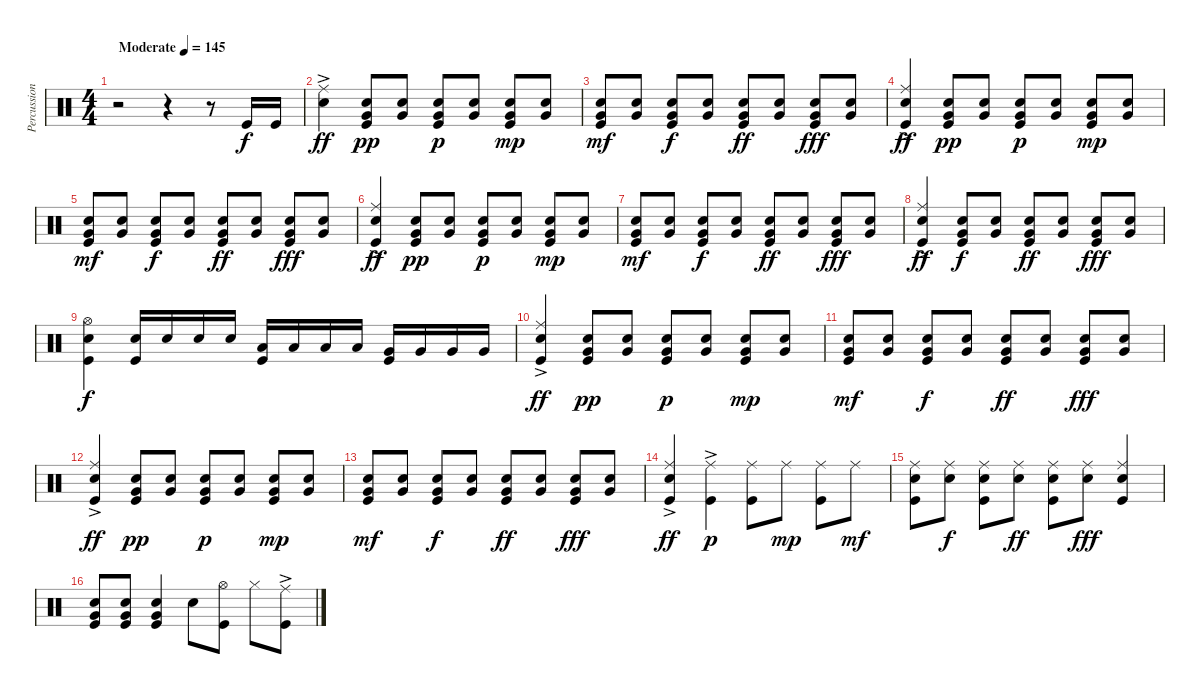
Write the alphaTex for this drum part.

\track ("Percussion" "Percussion") {instrument percussion}
\staff {score}
\articulation defaults
\ts (4 4)
\tempo (145 "Moderate")
\clef neutral
\ks c
r.2{dy f} r.4 r.8 "Kick (hit)".16 "Kick (hit)".16 |
("Ride (middle)"{ac} "Snare (hit) 2").4{dy ff} ("Snare (hit) 2" "Very Low Tom (hit)" "Kick (hit)").8{dy pp} ("Snare (hit) 2" "Very Low Tom (hit)").8 ("Snare (hit) 2" "Very Low Tom (hit)" "Kick (hit)").8{dy p} ("Snare (hit) 2" "Very Low Tom (hit)").8 ("Snare (hit) 2" "Very Low Tom (hit)" "Kick (hit)").8{dy mp} ("Snare (hit) 2" "Very Low Tom (hit)").8 |
("Snare (hit) 2" "Very Low Tom (hit)" "Kick (hit)").8{dy mf} ("Snare (hit) 2" "Very Low Tom (hit)").8 ("Snare (hit) 2" "Very Low Tom (hit)" "Kick (hit)").8{dy f} ("Snare (hit) 2" "Very Low Tom (hit)").8 ("Snare (hit) 2" "Very Low Tom (hit)" "Kick (hit)").8{dy ff} ("Snare (hit) 2" "Very Low Tom (hit)").8 ("Snare (hit) 2" "Very Low Tom (hit)" "Kick (hit)").8{dy fff} ("Snare (hit) 2" "Very Low Tom (hit)").8 |
("Ride (middle)"{ac} "Snare (hit) 2" "Kick (hit)").4{dy ff} ("Snare (hit) 2" "Very Low Tom (hit)" "Kick (hit)").8{dy pp} ("Snare (hit) 2" "Very Low Tom (hit)").8 ("Snare (hit) 2" "Very Low Tom (hit)" "Kick (hit)").8{dy p} ("Snare (hit) 2" "Very Low Tom (hit)").8 ("Snare (hit) 2" "Very Low Tom (hit)" "Kick (hit)").8{dy mp} ("Snare (hit) 2" "Very Low Tom (hit)").8 |
("Snare (hit) 2" "Very Low Tom (hit)" "Kick (hit)").8{dy mf} ("Snare (hit) 2" "Very Low Tom (hit)").8 ("Snare (hit) 2" "Very Low Tom (hit)" "Kick (hit)").8{dy f} ("Snare (hit) 2" "Very Low Tom (hit)").8 ("Snare (hit) 2" "Very Low Tom (hit)" "Kick (hit)").8{dy ff} ("Snare (hit) 2" "Very Low Tom (hit)").8 ("Snare (hit) 2" "Very Low Tom (hit)" "Kick (hit)").8{dy fff} ("Snare (hit) 2" "Very Low Tom (hit)").8 |
("Ride (middle)"{ac} "Snare (hit) 2" "Kick (hit)").4{dy ff} ("Snare (hit) 2" "Very Low Tom (hit)" "Kick (hit)").8{dy pp} ("Snare (hit) 2" "Very Low Tom (hit)").8 ("Snare (hit) 2" "Very Low Tom (hit)" "Kick (hit)").8{dy p} ("Snare (hit) 2" "Very Low Tom (hit)").8 ("Snare (hit) 2" "Very Low Tom (hit)" "Kick (hit)").8{dy mp} ("Snare (hit) 2" "Very Low Tom (hit)").8 |
("Snare (hit) 2" "Very Low Tom (hit)" "Kick (hit)").8{dy mf} ("Snare (hit) 2" "Very Low Tom (hit)").8 ("Snare (hit) 2" "Very Low Tom (hit)" "Kick (hit)").8{dy f} ("Snare (hit) 2" "Very Low Tom (hit)").8 ("Snare (hit) 2" "Very Low Tom (hit)" "Kick (hit)").8{dy ff} ("Snare (hit) 2" "Very Low Tom (hit)").8 ("Snare (hit) 2" "Very Low Tom (hit)" "Kick (hit)").8{dy fff} ("Snare (hit) 2" "Very Low Tom (hit)").8 |
("Ride (middle)"{ac} "Snare (hit) 2" "Kick (hit)").4{dy ff} ("Snare (hit) 2" "Very Low Tom (hit)" "Kick (hit)").8{dy f} ("Snare (hit) 2" "Very Low Tom (hit)").8 ("Snare (hit) 2" "Very Low Tom (hit)" "Kick (hit)").8{dy ff} ("Snare (hit) 2" "Very Low Tom (hit)").8 ("Snare (hit) 2" "Very Low Tom (hit)" "Kick (hit)").8{dy fff} ("Snare (hit) 2" "Very Low Tom (hit)").8 |
("Hi-Hat (open)" "Snare (hit) 2" "Kick (hit)").4{dy f} ("Snare (hit) 2" "Kick (hit)").16 "Snare (hit) 2".16 "Snare (hit) 2".16 "Snare (hit) 2".16 ("Low Tom (hit)" "Kick (hit)").16 "Low Tom (hit)".16 "Low Tom (hit)".16 "Low Tom (hit)".16 ("Very Low Tom (hit)" "Kick (hit)").16 "Very Low Tom (hit)".16 "Very Low Tom (hit)".16 "Very Low Tom (hit)".16 |
("Ride (middle)"{ac} "Snare (hit) 2" "Kick (hit)").4{dy ff} ("Snare (hit) 2" "Very Low Tom (hit)" "Kick (hit)").8{dy pp} ("Snare (hit) 2" "Very Low Tom (hit)").8 ("Snare (hit) 2" "Very Low Tom (hit)" "Kick (hit)").8{dy p} ("Snare (hit) 2" "Very Low Tom (hit)").8 ("Snare (hit) 2" "Very Low Tom (hit)" "Kick (hit)").8{dy mp} ("Snare (hit) 2" "Very Low Tom (hit)").8 |
("Snare (hit) 2" "Very Low Tom (hit)" "Kick (hit)").8{dy mf} ("Snare (hit) 2" "Very Low Tom (hit)").8 ("Snare (hit) 2" "Very Low Tom (hit)" "Kick (hit)").8{dy f} ("Snare (hit) 2" "Very Low Tom (hit)").8 ("Snare (hit) 2" "Very Low Tom (hit)" "Kick (hit)").8{dy ff} ("Snare (hit) 2" "Very Low Tom (hit)").8 ("Snare (hit) 2" "Very Low Tom (hit)" "Kick (hit)").8{dy fff} ("Snare (hit) 2" "Very Low Tom (hit)").8 |
("Ride (middle)"{ac} "Snare (hit) 2" "Kick (hit)").4{dy ff} ("Snare (hit) 2" "Very Low Tom (hit)" "Kick (hit)").8{dy pp} ("Snare (hit) 2" "Very Low Tom (hit)").8 ("Snare (hit) 2" "Very Low Tom (hit)" "Kick (hit)").8{dy p} ("Snare (hit) 2" "Very Low Tom (hit)").8 ("Snare (hit) 2" "Very Low Tom (hit)" "Kick (hit)").8{dy mp} ("Snare (hit) 2" "Very Low Tom (hit)").8 |
("Snare (hit) 2" "Very Low Tom (hit)" "Kick (hit)").8{dy mf} ("Snare (hit) 2" "Very Low Tom (hit)").8 ("Snare (hit) 2" "Very Low Tom (hit)" "Kick (hit)").8{dy f} ("Snare (hit) 2" "Very Low Tom (hit)").8 ("Snare (hit) 2" "Very Low Tom (hit)" "Kick (hit)").8{dy ff} ("Snare (hit) 2" "Very Low Tom (hit)").8 ("Snare (hit) 2" "Very Low Tom (hit)" "Kick (hit)").8{dy fff} ("Snare (hit) 2" "Very Low Tom (hit)").8 |
("Ride (middle)"{ac} "Snare (hit) 2" "Kick (hit)").4{dy ff} ("Ride (middle)"{ac} "Kick (hit)").4{dy p} ("Ride (middle)" "Kick (hit)").8 "Ride (middle)".8{dy mp} ("Ride (middle)" "Kick (hit)").8 "Ride (middle)".8{dy mf} |
("Ride (middle)" "Snare (hit) 2" "Kick (hit)").8 ("Ride (middle)" "Snare (hit) 2").8{dy f} ("Ride (middle)" "Snare (hit) 2" "Kick (hit)").8 ("Ride (middle)" "Snare (hit) 2").8{dy ff} ("Ride (middle)" "Snare (hit) 2" "Kick (hit)").8 ("Ride (middle)" "Snare (hit) 2").8{dy fff} ("Ride (middle)" "Snare (hit) 2" "Kick (hit)").4 |
("Snare (hit) 2" "Very Low Tom (hit)" "Kick (hit)").8 ("Snare (hit) 2" "Very Low Tom (hit)" "Kick (hit)").8 ("Snare (hit) 2" "Very Low Tom (hit)" "Kick (hit)").4 "Snare (hit) 2".8 ("Hi-Hat (open)" "Kick (hit)").8 "Hi-Hat (closed)".8 ("Ride (middle)"{ac} "Kick (hit)").8
